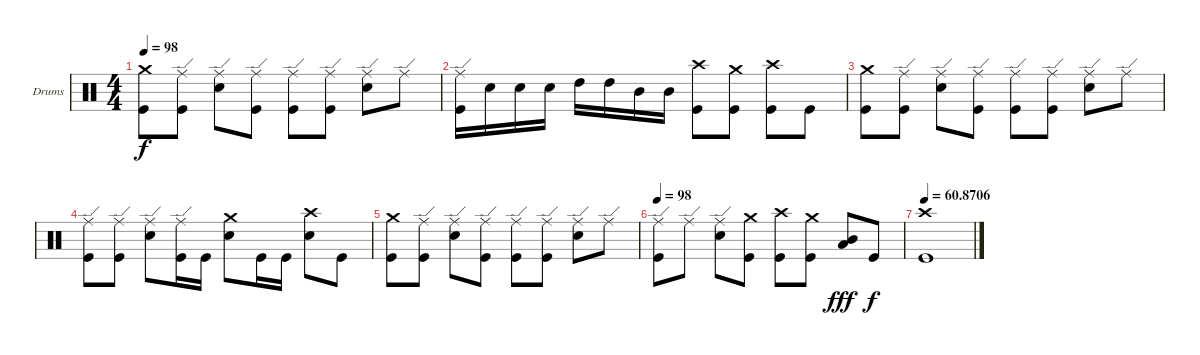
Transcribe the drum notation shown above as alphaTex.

\bracketExtendMode groupsimilarinstruments
\firstSystemTrackNameOrientation horizontal
\otherSystemsTrackNameOrientation horizontal
\track ("Drumkit" "Drums") {instrument percussion}
\staff {score}
\articulation defaults
\ts (4 4)
\tempo 98
\clef neutral
\scale
0.333333
\ks c
("Kick (hit)" "Crash medium (hit)").8{dy f} ("Kick (hit)" "Ride (edge)").8 ("Snare (hit) 2" "Ride (edge)").8 ("Kick (hit)" "Ride (edge)").8 ("Kick (hit)" "Ride (edge)").8 ("Kick (hit)" "Ride (edge)").8 ("Snare (hit) 2" "Ride (edge)").8 "Ride (edge)".8 |
\scale
0.333333 ("Kick (hit)" "Ride (edge)").16 "Snare (hit) 2".16 "Snare (hit) 2".16 "Snare (hit) 2".16 "High Tom (hit)".16 "High Tom (hit)".16 "Mid Tom (hit)".16 "Mid Tom (hit)".16 ("Kick (hit)" "Crash high (hit)").8 ("Kick (hit)" "Crash medium (hit)").8 ("Kick (hit)" "Crash high (hit)").8 "Kick (hit)".8 |
\scale
0.333333 ("Kick (hit)" "Crash medium (hit)").8 ("Kick (hit)" "Ride (edge)").8 ("Snare (hit) 2" "Ride (edge)").8 ("Kick (hit)" "Ride (edge)").8 ("Kick (hit)" "Ride (edge)").8 ("Kick (hit)" "Ride (edge)").8 ("Snare (hit) 2" "Ride (edge)").8 "Ride (edge)".8 |
\scale
0.333333 ("Kick (hit)" "Ride (edge)").8 ("Kick (hit)" "Ride (edge)").8 ("Snare (hit) 2" "Ride (edge)").8 ("Ride (edge)" "Kick (hit)").16 "Kick (hit)".16 ("Crash medium (hit)" "Snare (hit) 2").8 "Kick (hit)".16 "Kick (hit)".16 ("Crash high (hit)" "Snare (hit) 2").8 "Kick (hit)".8 |
\scale
0.333333 ("Kick (hit)" "Crash medium (hit)").8 ("Kick (hit)" "Ride (edge)").8 ("Snare (hit) 2" "Ride (edge)").8 ("Kick (hit)" "Ride (edge)").8 ("Kick (hit)" "Ride (edge)").8 ("Kick (hit)" "Ride (edge)").8 ("Snare (hit) 2" "Ride (edge)").8 "Ride (edge)".8 |
\tempo 98
\scale
0.333333 ("Kick (hit)" "Ride (edge)").8 "Ride (edge)".8 ("Snare (hit) 2" "Ride (edge)").8 ("Kick (hit)" "Crash medium (hit)").8 ("Kick (hit)" "Crash high (hit)").8 ("Kick (hit)" "Crash medium (hit)").8 ("Low Tom (hit)" "Mid Tom (hit)").8{dy fff} "Kick (hit)".8{dy f} |
\tempo
60.8706
\scale
0.333333 ("Kick (hit)" "Crash high (hit)").1
